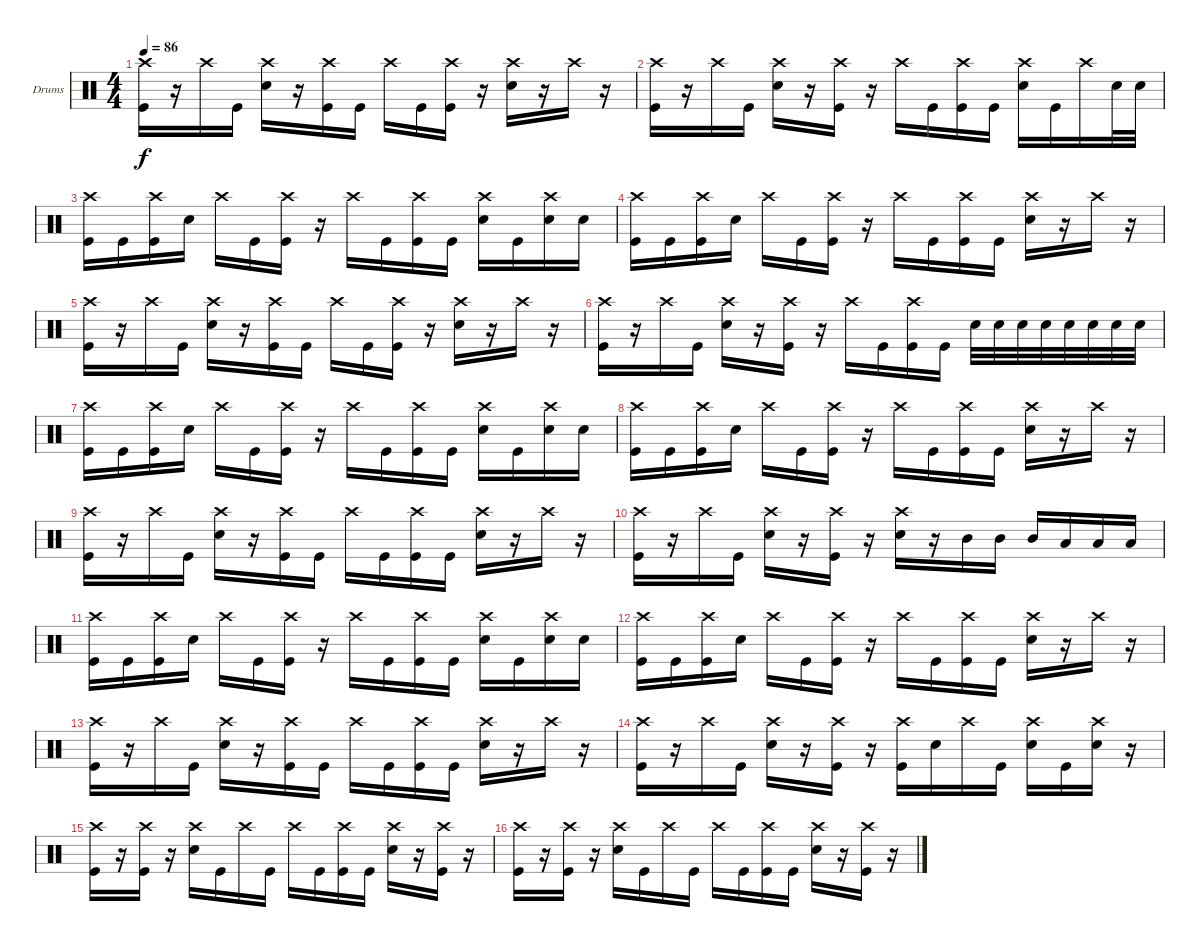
\bracketExtendMode groupsimilarinstruments
\firstSystemTrackNameOrientation horizontal
\otherSystemsTrackNameOrientation horizontal
\track ("Drumkit" "Drums") {instrument percussion}
\staff {score}
\articulation defaults
\ts (4 4)
\tempo 86
\clef neutral
\ks c
("Crash high (hit)" "Kick (hit)").16{dy f} r.16 "Crash high (hit)".16 "Kick (hit)".16 ("Crash high (hit)" "Snare (hit) 2").16 r.16 ("Crash high (hit)" "Kick (hit)").16 "Kick (hit)".16 "Crash high (hit)".16 "Kick (hit)".16 ("Crash high (hit)" "Kick (hit)").16 r.16 ("Crash high (hit)" "Snare (hit) 2").16 r.16 "Crash high (hit)".16 r.16 |
("Crash high (hit)" "Kick (hit)").16 r.16 "Crash high (hit)".16 "Kick (hit)".16 ("Crash high (hit)" "Snare (hit) 2").16 r.16 ("Crash high (hit)" "Kick (hit)").16 r.16 "Crash high (hit)".16 "Kick (hit)".16 ("Crash high (hit)" "Kick (hit)").16 "Kick (hit)".16 ("Crash high (hit)" "Snare (hit) 2").16 "Kick (hit)".16 "Crash high (hit)".16 "Snare (hit) 2".32 "Snare (hit) 2".32 |
("Crash high (hit)" "Kick (hit)").16 "Kick (hit)".16 ("Crash high (hit)" "Kick (hit)").16 "Snare (hit) 2".16 "Crash high (hit)".16 "Kick (hit)".16 ("Crash high (hit)" "Kick (hit)").16 r.16 "Crash high (hit)".16 "Kick (hit)".16 ("Crash high (hit)" "Kick (hit)").16 "Kick (hit)".16 ("Crash high (hit)" "Snare (hit) 2").16 "Kick (hit)".16 ("Crash high (hit)" "Snare (hit) 2").16 "Snare (hit) 2".16 |
("Crash high (hit)" "Kick (hit)").16 "Kick (hit)".16 ("Crash high (hit)" "Kick (hit)").16 "Snare (hit) 2".16 "Crash high (hit)".16 "Kick (hit)".16 ("Crash high (hit)" "Kick (hit)").16 r.16 "Crash high (hit)".16 "Kick (hit)".16 ("Crash high (hit)" "Kick (hit)").16 "Kick (hit)".16 ("Crash high (hit)" "Snare (hit) 2").16 r.16 "Crash high (hit)".16 r.16 |
("Crash high (hit)" "Kick (hit)").16 r.16 "Crash high (hit)".16 "Kick (hit)".16 ("Crash high (hit)" "Snare (hit) 2").16 r.16 ("Crash high (hit)" "Kick (hit)").16 "Kick (hit)".16 "Crash high (hit)".16 "Kick (hit)".16 ("Crash high (hit)" "Kick (hit)").16 r.16 ("Crash high (hit)" "Snare (hit) 2").16 r.16 "Crash high (hit)".16 r.16 |
("Crash high (hit)" "Kick (hit)").16 r.16 "Crash high (hit)".16 "Kick (hit)".16 ("Crash high (hit)" "Snare (hit) 2").16 r.16 ("Crash high (hit)" "Kick (hit)").16 r.16 "Crash high (hit)".16 "Kick (hit)".16 ("Crash high (hit)" "Kick (hit)").16 "Kick (hit)".16 "Snare (hit) 2".32 "Snare (hit) 2".32 "Snare (hit) 2".32 "Snare (hit) 2".32 "Snare (hit) 2".32 "Snare (hit) 2".32 "Snare (hit) 2".32 "Snare (hit) 2".32 |
("Crash high (hit)" "Kick (hit)").16 "Kick (hit)".16 ("Crash high (hit)" "Kick (hit)").16 "Snare (hit) 2".16 "Crash high (hit)".16 "Kick (hit)".16 ("Crash high (hit)" "Kick (hit)").16 r.16 "Crash high (hit)".16 "Kick (hit)".16 ("Crash high (hit)" "Kick (hit)").16 "Kick (hit)".16 ("Crash high (hit)" "Snare (hit) 2").16 "Kick (hit)".16 ("Crash high (hit)" "Snare (hit) 2").16 "Snare (hit) 2".16 |
("Crash high (hit)" "Kick (hit)").16 "Kick (hit)".16 ("Crash high (hit)" "Kick (hit)").16 "Snare (hit) 2".16 "Crash high (hit)".16 "Kick (hit)".16 ("Crash high (hit)" "Kick (hit)").16 r.16 "Crash high (hit)".16 "Kick (hit)".16 ("Crash high (hit)" "Kick (hit)").16 "Kick (hit)".16 ("Crash high (hit)" "Snare (hit) 2").16 r.16 "Crash high (hit)".16 r.16 |
("Crash high (hit)" "Kick (hit)").16 r.16 "Crash high (hit)".16 "Kick (hit)".16 ("Crash high (hit)" "Snare (hit) 2").16 r.16 ("Crash high (hit)" "Kick (hit)").16 "Kick (hit)".16 "Crash high (hit)".16 "Kick (hit)".16 ("Crash high (hit)" "Kick (hit)").16 "Kick (hit)".16 ("Crash high (hit)" "Snare (hit) 2").16 r.16 "Crash high (hit)".16 r.16 |
("Crash high (hit)" "Kick (hit)").16 r.16 "Crash high (hit)".16 "Kick (hit)".16 ("Crash high (hit)" "Snare (hit) 2").16 r.16 ("Crash high (hit)" "Kick (hit)").16 r.16 ("Crash high (hit)" "Snare (hit) 2").16 r.16 "Mid Tom (hit)".16 "Mid Tom (hit)".16 "Mid Tom (hit)".16 "Low Tom (hit)".16 "Low Tom (hit)".16 "Low Tom (hit)".16 |
("Crash high (hit)" "Kick (hit)").16 "Kick (hit)".16 ("Crash high (hit)" "Kick (hit)").16 "Snare (hit) 2".16 "Crash high (hit)".16 "Kick (hit)".16 ("Crash high (hit)" "Kick (hit)").16 r.16 "Crash high (hit)".16 "Kick (hit)".16 ("Crash high (hit)" "Kick (hit)").16 "Kick (hit)".16 ("Crash high (hit)" "Snare (hit) 2").16 "Kick (hit)".16 ("Crash high (hit)" "Snare (hit) 2").16 "Snare (hit) 2".16 |
("Crash high (hit)" "Kick (hit)").16 "Kick (hit)".16 ("Crash high (hit)" "Kick (hit)").16 "Snare (hit) 2".16 "Crash high (hit)".16 "Kick (hit)".16 ("Crash high (hit)" "Kick (hit)").16 r.16 "Crash high (hit)".16 "Kick (hit)".16 ("Crash high (hit)" "Kick (hit)").16 "Kick (hit)".16 ("Crash high (hit)" "Snare (hit) 2").16 r.16 "Crash high (hit)".16 r.16 |
("Crash high (hit)" "Kick (hit)").16 r.16 "Crash high (hit)".16 "Kick (hit)".16 ("Crash high (hit)" "Snare (hit) 2").16 r.16 ("Crash high (hit)" "Kick (hit)").16 "Kick (hit)".16 "Crash high (hit)".16 "Kick (hit)".16 ("Crash high (hit)" "Kick (hit)").16 "Kick (hit)".16 ("Crash high (hit)" "Snare (hit) 2").16 r.16 "Crash high (hit)".16 r.16 |
("Crash high (hit)" "Kick (hit)").16 r.16 "Crash high (hit)".16 "Kick (hit)".16 ("Crash high (hit)" "Snare (hit) 2").16 r.16 ("Crash high (hit)" "Kick (hit)").16 r.16 ("Crash high (hit)" "Kick (hit)").16 "Snare (hit) 2".16 "Crash high (hit)".16 "Kick (hit)".16 ("Snare (hit) 2" "Crash high (hit)").16 "Kick (hit)".16 ("Snare (hit) 2" "Crash high (hit)").16 r.16 |
("Crash high (hit)" "Kick (hit)").16 r.16 ("Crash high (hit)" "Kick (hit)").16 r.16 ("Crash high (hit)" "Snare (hit) 2").16 "Kick (hit)".16 "Crash high (hit)".16 "Kick (hit)".16 "Crash high (hit)".16 "Kick (hit)".16 ("Crash high (hit)" "Kick (hit)").16 "Kick (hit)".16 ("Crash high (hit)" "Snare (hit) 2").16 r.16 ("Crash high (hit)" "Kick (hit)").16 r.16 |
("Crash high (hit)" "Kick (hit)").16 r.16 ("Crash high (hit)" "Kick (hit)").16 r.16 ("Crash high (hit)" "Snare (hit) 2").16 "Kick (hit)".16 "Crash high (hit)".16 "Kick (hit)".16 "Crash high (hit)".16 "Kick (hit)".16 ("Crash high (hit)" "Kick (hit)").16 "Kick (hit)".16 ("Crash high (hit)" "Snare (hit) 2").16 r.16 ("Crash high (hit)" "Kick (hit)").16 r.16
